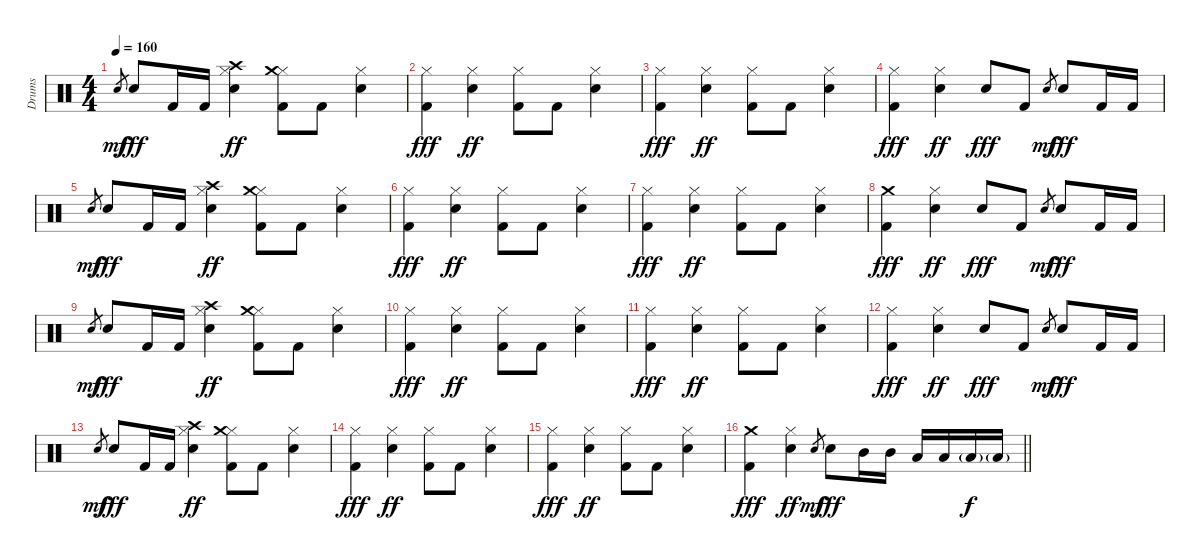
\track ("Drums" "Drums") {instrument percussion}
\staff {score}
\articulation defaults
\ts (4 4)
\section ("" "")
\tempo 160
\clef neutral
\ks c "Electric Snare (hit)".8{gr dy mf} "Electric Snare (hit)".8{dy fff} "Kick (hit) 2".16 "Kick (hit) 2".16
("Hi-Hat (closed)" "Crash high (hit)" "Electric Snare (hit)").4{dy ff} ("Hi-Hat (closed)" "Crash medium (hit)" "Kick (hit) 2").8 "Kick (hit) 2".8 ("Hi-Hat (closed)" "Electric Snare (hit)").4 |
("Hi-Hat (closed)" "Kick (hit) 2").4{dy fff} ("Hi-Hat (closed)" "Electric Snare (hit)").4{dy ff} ("Hi-Hat (closed)" "Kick (hit) 2").8 "Kick (hit) 2".8 ("Hi-Hat (closed)" "Electric Snare (hit)").4 |
("Hi-Hat (closed)" "Kick (hit) 2").4{dy fff} ("Hi-Hat (closed)" "Electric Snare (hit)").4{dy ff} ("Hi-Hat (closed)" "Kick (hit) 2").8 "Kick (hit) 2".8 ("Hi-Hat (closed)" "Electric Snare (hit)").4 |
("Hi-Hat (closed)" "Kick (hit) 2").4{dy fff} ("Hi-Hat (closed)" "Electric Snare (hit)").4{dy ff} "Electric Snare (hit)".8{dy fff} "Kick (hit) 2".8 "Electric Snare (hit)".8{gr dy mf} "Electric Snare (hit)".8{dy fff} "Kick (hit) 2".16 "Kick (hit) 2".16 |
"Electric Snare (hit)".8{gr dy mf} "Electric Snare (hit)".8{dy fff} "Kick (hit) 2".16 "Kick (hit) 2".16 ("Hi-Hat (closed)" "Crash high (hit)" "Electric Snare (hit)").4{dy ff} ("Hi-Hat (closed)" "Crash medium (hit)" "Kick (hit) 2").8 "Kick (hit) 2".8 ("Hi-Hat (closed)" "Electric Snare (hit)").4 |
("Hi-Hat (closed)" "Kick (hit) 2").4{dy fff} ("Hi-Hat (closed)" "Electric Snare (hit)").4{dy ff} ("Hi-Hat (closed)" "Kick (hit) 2").8 "Kick (hit) 2".8 ("Hi-Hat (closed)" "Electric Snare (hit)").4 |
("Hi-Hat (closed)" "Kick (hit) 2").4{dy fff} ("Hi-Hat (closed)" "Electric Snare (hit)").4{dy ff} ("Hi-Hat (closed)" "Kick (hit) 2").8 "Kick (hit) 2".8 ("Hi-Hat (closed)" "Electric Snare (hit)").4 |
("Crash medium (hit)" "Kick (hit) 2").4{dy fff} ("Hi-Hat (closed)" "Electric Snare (hit)").4{dy ff} "Electric Snare (hit)".8{dy fff} "Kick (hit) 2".8 "Electric Snare (hit)".8{gr dy mf} "Electric Snare (hit)".8{dy fff} "Kick (hit) 2".16 "Kick (hit) 2".16 |
"Electric Snare (hit)".8{gr dy mf} "Electric Snare (hit)".8{dy fff} "Kick (hit) 2".16 "Kick (hit) 2".16 ("Hi-Hat (closed)" "Crash high (hit)" "Electric Snare (hit)").4{dy ff} ("Hi-Hat (closed)" "Crash medium (hit)" "Kick (hit) 2").8 "Kick (hit) 2".8 ("Hi-Hat (closed)" "Electric Snare (hit)").4 |
("Hi-Hat (closed)" "Kick (hit) 2").4{dy fff} ("Hi-Hat (closed)" "Electric Snare (hit)").4{dy ff} ("Hi-Hat (closed)" "Kick (hit) 2").8 "Kick (hit) 2".8 ("Hi-Hat (closed)" "Electric Snare (hit)").4 |
("Hi-Hat (closed)" "Kick (hit) 2").4{dy fff} ("Hi-Hat (closed)" "Electric Snare (hit)").4{dy ff} ("Hi-Hat (closed)" "Kick (hit) 2").8 "Kick (hit) 2".8 ("Hi-Hat (closed)" "Electric Snare (hit)").4 |
("Hi-Hat (closed)" "Kick (hit) 2").4{dy fff} ("Hi-Hat (closed)" "Electric Snare (hit)").4{dy ff} "Electric Snare (hit)".8{dy fff} "Kick (hit) 2".8 "Electric Snare (hit)".8{gr dy mf} "Electric Snare (hit)".8{dy fff} "Kick (hit) 2".16 "Kick (hit) 2".16 |
"Electric Snare (hit)".8{gr dy mf} "Electric Snare (hit)".8{dy fff} "Kick (hit) 2".16 "Kick (hit) 2".16 ("Hi-Hat (closed)" "Crash high (hit)" "Electric Snare (hit)").4{dy ff} ("Hi-Hat (closed)" "Crash medium (hit)" "Kick (hit) 2").8 "Kick (hit) 2".8 ("Hi-Hat (closed)" "Electric Snare (hit)").4 |
("Hi-Hat (closed)" "Kick (hit) 2").4{dy fff} ("Hi-Hat (closed)" "Electric Snare (hit)").4{dy ff} ("Hi-Hat (closed)" "Kick (hit) 2").8 "Kick (hit) 2".8 ("Hi-Hat (closed)" "Electric Snare (hit)").4 |
("Hi-Hat (closed)" "Kick (hit) 2").4{dy fff} ("Hi-Hat (closed)" "Electric Snare (hit)").4{dy ff} ("Hi-Hat (closed)" "Kick (hit) 2").8 "Kick (hit) 2".8 ("Hi-Hat (closed)" "Electric Snare (hit)").4 |
\barLineRight lightlight
("Crash medium (hit)" "Kick (hit) 2").4{dy fff} ("Hi-Hat (closed)" "Electric Snare (hit)").4{dy ff} "Electric Snare (hit)".8{gr dy mf} "Electric Snare (hit)".8{dy fff} "Mid Tom (hit)".16 "Mid Tom (hit)".16 "Low Tom (hit)".16 "Low Tom (hit)".16 "Low Tom (hit)"{g}.16{dy f} "Low Tom (hit)"{g}.16
